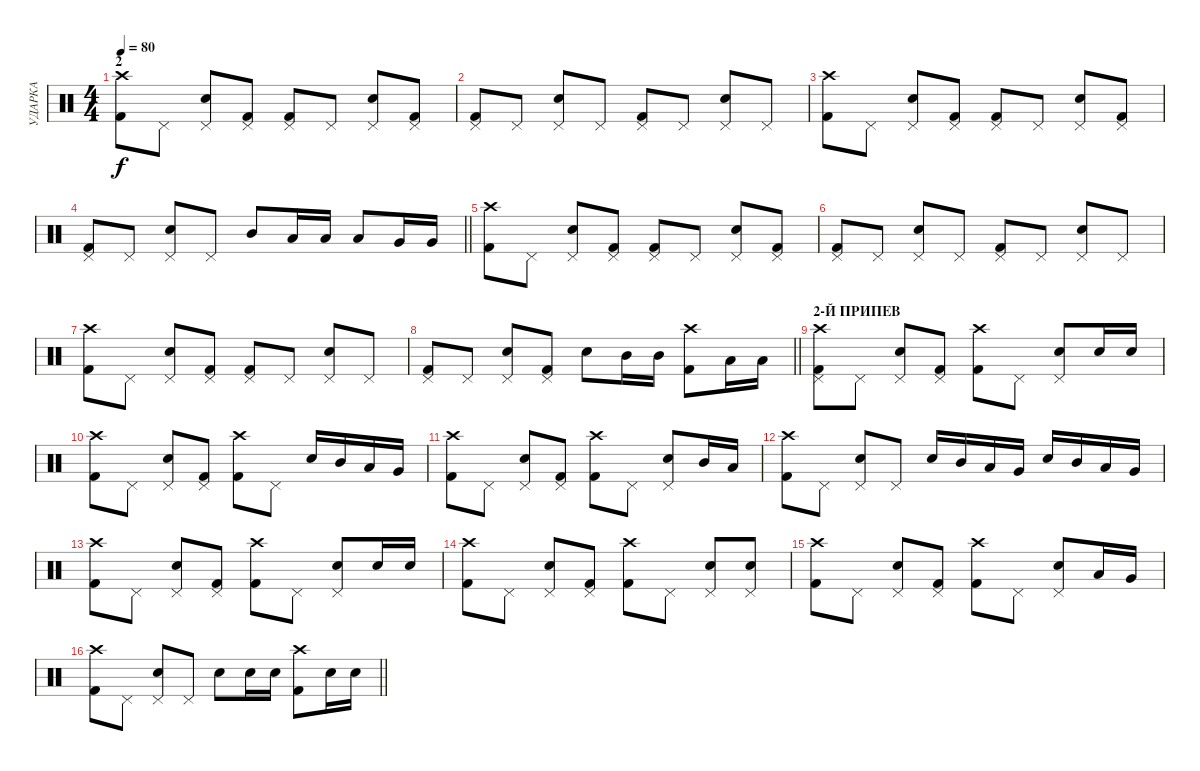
\track ("УДАРКА" "УДАРКА") {instrument percussion}
\staff {score}
\articulation defaults
\ts (4 4)
\section ("" "2")
\tempo 80
\clef neutral
\ks c
("Crash high (hit)" "Kick (hit) 2").8{dy f} "Pedal Hi-Hat (hit)".8 ("Pedal Hi-Hat (hit)" "Electric Snare (hit)").8 ("Pedal Hi-Hat (hit)" "Kick (hit) 2").8 ("Pedal Hi-Hat (hit)" "Kick (hit) 2").8 "Pedal Hi-Hat (hit)".8 ("Pedal Hi-Hat (hit)" "Electric Snare (hit)").8 ("Pedal Hi-Hat (hit)" "Kick (hit) 2").8 |
("Pedal Hi-Hat (hit)" "Kick (hit) 2").8 "Pedal Hi-Hat (hit)".8 ("Pedal Hi-Hat (hit)" "Electric Snare (hit)").8 "Pedal Hi-Hat (hit)".8 ("Pedal Hi-Hat (hit)" "Kick (hit) 2").8 "Pedal Hi-Hat (hit)".8 ("Pedal Hi-Hat (hit)" "Electric Snare (hit)").8 "Pedal Hi-Hat (hit)".8 |
("Crash high (hit)" "Kick (hit) 2").8 "Pedal Hi-Hat (hit)".8 ("Pedal Hi-Hat (hit)" "Electric Snare (hit)").8 ("Pedal Hi-Hat (hit)" "Kick (hit) 2").8 ("Pedal Hi-Hat (hit)" "Kick (hit) 2").8 "Pedal Hi-Hat (hit)".8 ("Pedal Hi-Hat (hit)" "Electric Snare (hit)").8 ("Pedal Hi-Hat (hit)" "Kick (hit) 2").8 |
\barLineRight lightlight
("Pedal Hi-Hat (hit)" "Kick (hit) 2").8 "Pedal Hi-Hat (hit)".8 ("Pedal Hi-Hat (hit)" "Electric Snare (hit)").8 "Pedal Hi-Hat (hit)".8 "Mid Tom (hit)".8 "Low Tom (hit)".16 "Low Tom (hit)".16 "Low Tom (hit)".8 "Very Low Tom (hit)".16 "Very Low Tom (hit)".16 |
("Crash high (hit)" "Kick (hit) 2").8 "Pedal Hi-Hat (hit)".8 ("Pedal Hi-Hat (hit)" "Electric Snare (hit)").8 ("Pedal Hi-Hat (hit)" "Kick (hit) 2").8 ("Pedal Hi-Hat (hit)" "Kick (hit) 2").8 "Pedal Hi-Hat (hit)".8 ("Pedal Hi-Hat (hit)" "Electric Snare (hit)").8 ("Pedal Hi-Hat (hit)" "Kick (hit) 2").8 |
("Pedal Hi-Hat (hit)" "Kick (hit) 2").8 "Pedal Hi-Hat (hit)".8 ("Pedal Hi-Hat (hit)" "Electric Snare (hit)").8 "Pedal Hi-Hat (hit)".8 ("Pedal Hi-Hat (hit)" "Kick (hit) 2").8 "Pedal Hi-Hat (hit)".8 ("Pedal Hi-Hat (hit)" "Electric Snare (hit)").8 "Pedal Hi-Hat (hit)".8 |
("Crash high (hit)" "Kick (hit) 2").8 "Pedal Hi-Hat (hit)".8 ("Pedal Hi-Hat (hit)" "Electric Snare (hit)").8 ("Pedal Hi-Hat (hit)" "Kick (hit) 2").8 ("Pedal Hi-Hat (hit)" "Kick (hit) 2").8 "Pedal Hi-Hat (hit)".8 ("Pedal Hi-Hat (hit)" "Electric Snare (hit)").8 "Pedal Hi-Hat (hit)".8 |
\barLineRight lightlight
("Pedal Hi-Hat (hit)" "Kick (hit) 2").8 "Pedal Hi-Hat (hit)".8 ("Pedal Hi-Hat (hit)" "Electric Snare (hit)").8 ("Pedal Hi-Hat (hit)" "Kick (hit) 2").8 "Electric Snare (hit)".8 "Mid Tom (hit)".16 "Mid Tom (hit)".16 ("Crash high (hit)" "Kick (hit) 2").8 "Low Tom (hit)".16 "Low Tom (hit)".16 |
\section ("" "2-Й ПРИПЕВ")
("Pedal Hi-Hat (hit)" "Kick (hit) 2" "Crash high (hit)").8 "Pedal Hi-Hat (hit)".8 ("Pedal Hi-Hat (hit)" "Electric Snare (hit)").8 ("Pedal Hi-Hat (hit)" "Kick (hit) 2").8 ("Crash high (hit)" "Kick (hit) 2").8 "Pedal Hi-Hat (hit)".8 ("Pedal Hi-Hat (hit)" "Electric Snare (hit)").8 "Electric Snare (hit)".16 "Electric Snare (hit)".16 |
("Crash high (hit)" "Kick (hit) 2").8 "Pedal Hi-Hat (hit)".8 ("Pedal Hi-Hat (hit)" "Electric Snare (hit)").8 ("Pedal Hi-Hat (hit)" "Kick (hit) 2").8 ("Crash high (hit)" "Kick (hit) 2").8 "Pedal Hi-Hat (hit)".8 "Electric Snare (hit)".16 "Mid Tom (hit)".16 "Low Tom (hit)".16 "Very Low Tom (hit)".16 |
("Crash high (hit)" "Kick (hit) 2").8 "Pedal Hi-Hat (hit)".8 ("Pedal Hi-Hat (hit)" "Electric Snare (hit)").8 ("Pedal Hi-Hat (hit)" "Kick (hit) 2").8 ("Crash high (hit)" "Kick (hit) 2").8 "Pedal Hi-Hat (hit)".8 ("Pedal Hi-Hat (hit)" "Electric Snare (hit)").8 "Mid Tom (hit)".16 "Low Tom (hit)".16 |
("Kick (hit) 2" "Crash high (hit)").8 "Pedal Hi-Hat (hit)".8 ("Pedal Hi-Hat (hit)" "Electric Snare (hit)").8 "Pedal Hi-Hat (hit)".8 "Electric Snare (hit)".16 "Mid Tom (hit)".16 "Low Tom (hit)".16 "Very Low Tom (hit)".16 "Electric Snare (hit)".16 "Mid Tom (hit)".16 "Low Tom (hit)".16 "Very Low Tom (hit)".16 |
("Crash high (hit)" "Kick (hit) 2").8 "Pedal Hi-Hat (hit)".8 ("Pedal Hi-Hat (hit)" "Electric Snare (hit)").8 ("Pedal Hi-Hat (hit)" "Kick (hit) 2").8 ("Kick (hit) 2" "Crash high (hit)").8 "Pedal Hi-Hat (hit)".8 ("Pedal Hi-Hat (hit)" "Electric Snare (hit)").8 "Electric Snare (hit)".16 "Electric Snare (hit)".16 |
("Kick (hit) 2" "Crash high (hit)").8 "Pedal Hi-Hat (hit)".8 ("Pedal Hi-Hat (hit)" "Electric Snare (hit)").8 ("Pedal Hi-Hat (hit)" "Kick (hit) 2").8 ("Kick (hit) 2" "Crash high (hit)").8 "Pedal Hi-Hat (hit)".8 ("Pedal Hi-Hat (hit)" "Electric Snare (hit)").8 ("Pedal Hi-Hat (hit)" "Electric Snare (hit)").8 |
("Crash high (hit)" "Kick (hit) 2").8 "Pedal Hi-Hat (hit)".8 ("Pedal Hi-Hat (hit)" "Electric Snare (hit)").8 ("Pedal Hi-Hat (hit)" "Kick (hit) 2").8 ("Crash high (hit)" "Kick (hit) 2").8 "Pedal Hi-Hat (hit)".8 ("Pedal Hi-Hat (hit)" "Electric Snare (hit)").8 "Low Tom (hit)".16 "Very Low Tom (hit)".16 |
\barLineRight lightlight
("Crash high (hit)" "Kick (hit) 2").8 "Pedal Hi-Hat (hit)".8 ("Pedal Hi-Hat (hit)" "Electric Snare (hit)").8 "Pedal Hi-Hat (hit)".8 "Electric Snare (hit)".8 "Electric Snare (hit)".16 "Electric Snare (hit)".16 ("Crash high (hit)" "Kick (hit) 2").8 "Electric Snare (hit)".16 "Electric Snare (hit)".16
